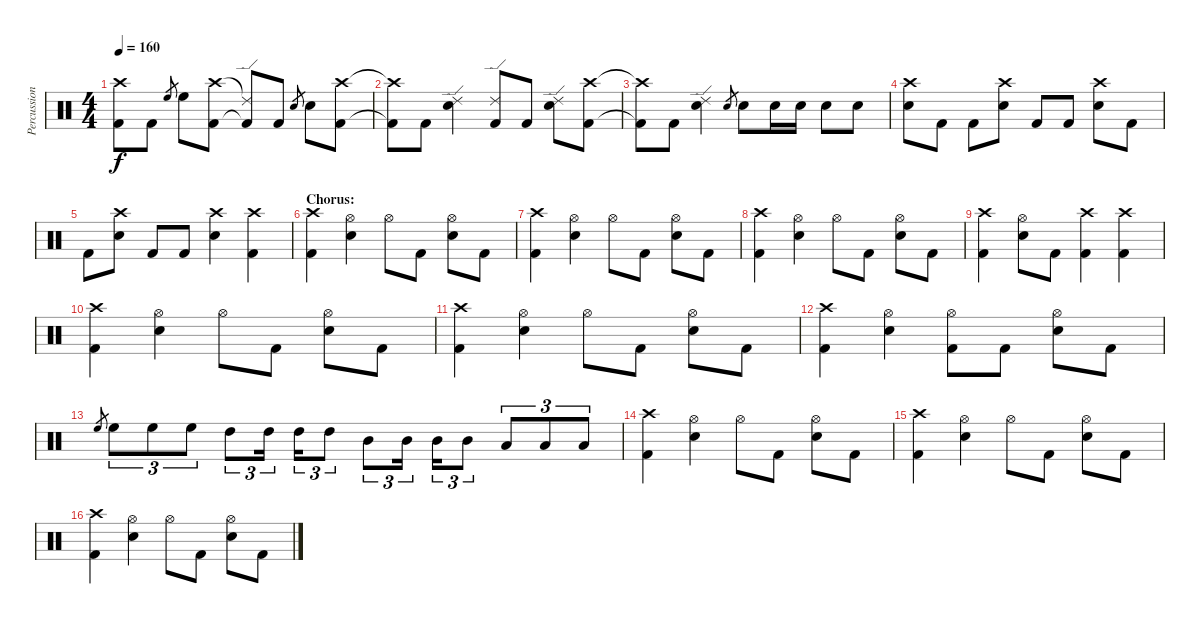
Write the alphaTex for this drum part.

\track ("Percussion" "Percussion") {instrument percussion}
\staff {score}
\articulation defaults
\ts (4 4)
\tempo 160
\clef neutral
\ks c
("Crash high (hit)"{t} "Kick (hit) 2"{t}).8{dy f} "Kick (hit) 2".8 "High Floor Tom (hit)".8{gr} "High Floor Tom (hit)".8 ("Crash high (hit)" "Kick (hit) 2").8 ("Ride (edge) 2"{t} "Kick (hit) 2"{t}).8 "Kick (hit) 2".8 "Snare (hit) 2".8{gr} "Snare (hit) 2".8 ("Crash high (hit)" "Kick (hit) 2").8 |
("Crash high (hit)"{t} "Kick (hit) 2"{t}).8 "Kick (hit) 2".8 ("Ride (edge) 2" "Snare (hit) 2").4 ("Ride (edge) 2" "Kick (hit) 2").8 "Kick (hit) 2".8 ("Ride (edge) 2" "Snare (hit) 2").8 ("Crash high (hit)" "Kick (hit) 2").8 |
("Crash high (hit)"{t} "Kick (hit) 2"{t}).8 "Kick (hit) 2".8 ("Ride (edge) 2" "Snare (hit) 2").4 "Snare (hit) 2".8{gr} "Snare (hit) 2".8 "Snare (hit) 2".16 "Snare (hit) 2".16 "Snare (hit) 2".8 "Snare (hit) 2".8 |
("Crash high (hit)" "Snare (hit) 2").8 "Kick (hit) 2".8 "Kick (hit) 2".8 ("Crash high (hit)" "Snare (hit) 2").8 "Kick (hit) 2".8 "Kick (hit) 2".8 ("Crash high (hit)" "Snare (hit) 2").8 "Kick (hit) 2".8 |
"Kick (hit) 2".8 ("Crash high (hit)" "Snare (hit) 2").8 "Kick (hit) 2".8 "Kick (hit) 2".8 ("Crash high (hit)" "Snare (hit) 2").4 ("Crash high (hit)" "Kick (hit) 2").4 |
\section ("" "Chorus:")
("Crash high (hit)" "Kick (hit) 2").4 ("Hi-Hat (open)" "Snare (hit) 2").4 "Hi-Hat (open)".8 "Kick (hit) 2".8 ("Hi-Hat (open)" "Snare (hit) 2").8 "Kick (hit) 2".8 |
("Crash high (hit)" "Kick (hit) 2").4 ("Hi-Hat (open)" "Snare (hit) 2").4 "Hi-Hat (open)".8 "Kick (hit) 2".8 ("Hi-Hat (open)" "Snare (hit) 2").8 "Kick (hit) 2".8 |
("Crash high (hit)" "Kick (hit) 2").4 ("Hi-Hat (open)" "Snare (hit) 2").4 "Hi-Hat (open)".8 "Kick (hit) 2".8 ("Hi-Hat (open)" "Snare (hit) 2").8 "Kick (hit) 2".8 |
("Crash high (hit)" "Kick (hit) 2").4 ("Hi-Hat (open)" "Snare (hit) 2").8 "Kick (hit) 2".8 ("Crash high (hit)" "Kick (hit) 2").4 ("Crash high (hit)" "Kick (hit) 2").4 |
("Crash high (hit)" "Kick (hit) 2").4 ("Hi-Hat (open)" "Snare (hit) 2").4 "Hi-Hat (open)".8 "Kick (hit) 2".8 ("Hi-Hat (open)" "Snare (hit) 2").8 "Kick (hit) 2".8 |
("Crash high (hit)" "Kick (hit) 2").4 ("Hi-Hat (open)" "Snare (hit) 2").4 "Hi-Hat (open)".8 "Kick (hit) 2".8 ("Hi-Hat (open)" "Snare (hit) 2").8 "Kick (hit) 2".8 |
("Crash high (hit)" "Kick (hit) 2").4 ("Hi-Hat (open)" "Snare (hit) 2").4 ("Hi-Hat (open)" "Kick (hit) 2").8 "Kick (hit) 2".8 ("Hi-Hat (open)" "Snare (hit) 2").8 "Kick (hit) 2".8 |
"High Floor Tom (hit)".8{gr} "High Floor Tom (hit)".8{tu (3 2)} "High Floor Tom (hit)".8{tu (3 2)} "High Floor Tom (hit)".8{tu (3 2)} "High Tom (hit)".8{tu (3 2)} "High Tom (hit)".16{tu (3 2)} "High Tom (hit)".16{tu (3 2)} "High Tom (hit)".8{tu (3 2)} "Mid Tom (hit)".8{tu (3 2)} "Mid Tom (hit)".16{tu (3 2)} "Mid Tom (hit)".16{tu (3 2)} "Mid Tom (hit)".8{tu (3 2)} "Low Tom (hit)".8{tu (3 2)} "Low Tom (hit)".8{tu (3 2)} "Low Tom (hit)".8{tu (3 2)} |
("Crash high (hit)" "Kick (hit) 2").4 ("Hi-Hat (open)" "Snare (hit) 2").4 "Hi-Hat (open)".8 "Kick (hit) 2".8 ("Hi-Hat (open)" "Snare (hit) 2").8 "Kick (hit) 2".8 |
("Crash high (hit)" "Kick (hit) 2").4 ("Hi-Hat (open)" "Snare (hit) 2").4 "Hi-Hat (open)".8 "Kick (hit) 2".8 ("Hi-Hat (open)" "Snare (hit) 2").8 "Kick (hit) 2".8 |
("Crash high (hit)" "Kick (hit) 2").4 ("Hi-Hat (open)" "Snare (hit) 2").4 "Hi-Hat (open)".8 "Kick (hit) 2".8 ("Hi-Hat (open)" "Snare (hit) 2").8 "Kick (hit) 2".8
